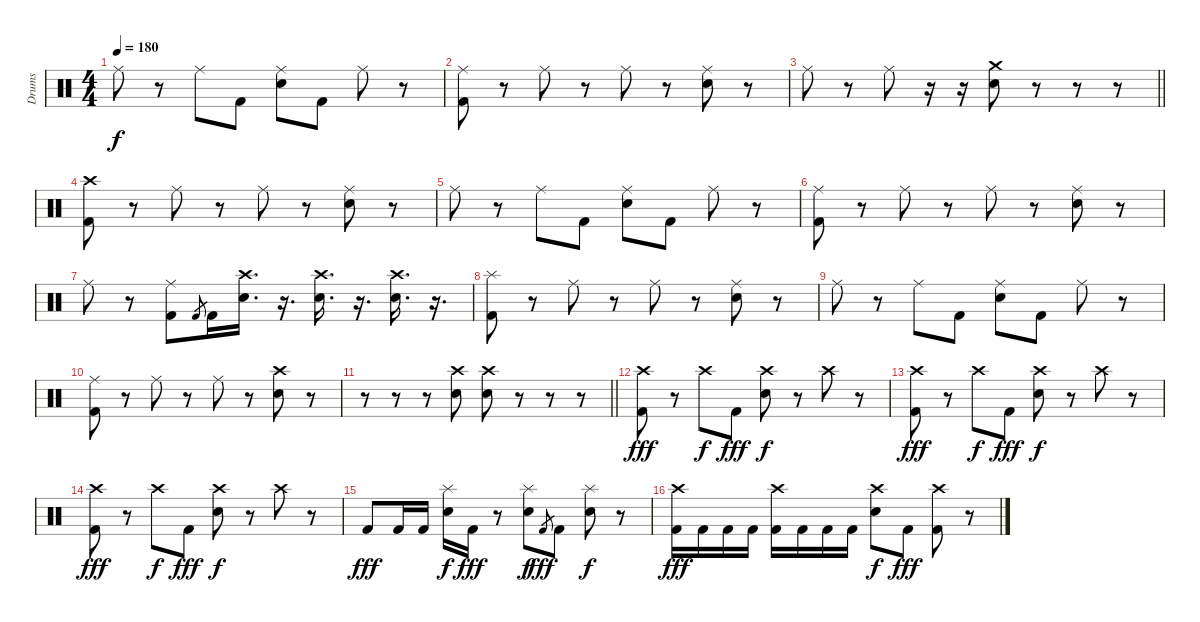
\track ("Drums" "Drums") {instrument percussion}
\staff {score}
\articulation defaults
\ts (4 4)
\tempo 180
\clef neutral
\ks c "Ride (middle)".8{dy f}
r.8 "Ride (middle)".8 "Kick (hit) 2".8 ("Ride (middle)" "Electric Snare (hit)").8 "Kick (hit) 2".8 "Ride (middle)".8 r.8 |
("Ride (middle)" "Kick (hit) 2").8 r.8 "Ride (middle)".8 r.8 "Ride (middle)".8 r.8 ("Ride (middle)" "Electric Snare (hit)").8 r.8 |
\barLineRight lightlight "Ride (middle)".8
r.8 "Ride (middle)".8 r.16 r.16 ("Crash medium (hit)" "Electric Snare (hit)").8 r.8 r.8 r.8 |
\section ("" "")
("Crash high (hit)" "Kick (hit) 2").8{volume 12} r.8 "Ride (middle)".8 r.8 "Ride (middle)".8 r.8 ("Ride (middle)" "Electric Snare (hit)").8 r.8 |
"Ride (middle)".8 r.8 "Ride (middle)".8 "Kick (hit) 2".8 ("Ride (middle)" "Electric Snare (hit)").8 "Kick (hit) 2".8 "Ride (middle)".8 r.8 |
("Ride (middle)" "Kick (hit) 2").8 r.8 "Ride (middle)".8 r.8 "Ride (middle)".8 r.8 ("Ride (middle)" "Electric Snare (hit)").8 r.8 |
"Ride (middle)".8 r.8 ("Ride (middle)" "Kick (hit) 2").8 "Kick (hit) 2".8{gr} "Kick (hit) 2".16 ("Crash high (hit)" "Electric Snare (hit)").16{d} r.16{d} ("Crash high (hit)" "Electric Snare (hit)").16{d} r.16{d} ("Crash high (hit)" "Electric Snare (hit)").16{d} r.16{d} |
("Splash (hit)" "Kick (hit) 2").8 r.8 "Ride (middle)".8 r.8 "Ride (middle)".8 r.8 ("Ride (middle)" "Electric Snare (hit)").8 r.8 |
"Ride (middle)".8 r.8 "Ride (middle)".8 "Kick (hit) 2".8 ("Ride (middle)" "Electric Snare (hit)").8 "Kick (hit) 2".8 "Ride (middle)".8 r.8 |
("Ride (middle)" "Kick (hit) 2").8 r.8 "Ride (middle)".8 r.8 "Ride (middle)".8 r.8 ("Crash high (hit)" "Electric Snare (hit)").8 r.8 |
\barLineRight lightlight
r.8 r.8 r.8 ("Crash high (hit)" "Electric Snare (hit)").8 ("Crash high (hit)" "Electric Snare (hit)").8 r.8 r.8 r.8 |
\section ("" "")
("Crash high (hit)" "Kick (hit) 2").8{dy fff} r.8 "Crash high (hit)".8{dy f} "Kick (hit) 2".8{dy fff} ("Crash high (hit)" "Electric Snare (hit)").8{dy f} r.8 "Crash high (hit)".8 r.8 |
("Crash high (hit)" "Kick (hit) 2").8{dy fff} r.8 "Crash high (hit)".8{dy f} "Kick (hit) 2".8{dy fff} ("Crash high (hit)" "Electric Snare (hit)").8{dy f} r.8 "Crash high (hit)".8 r.8 |
("Crash high (hit)" "Kick (hit) 2").8{dy fff} r.8 "Crash high (hit)".8{dy f} "Kick (hit) 2".8{dy fff} ("Crash high (hit)" "Electric Snare (hit)").8{dy f} r.8 "Crash high (hit)".8 r.8 |
"Kick (hit) 2".8{dy fff} "Kick (hit) 2".16 "Kick (hit) 2".16 ("Splash (hit)" "Electric Snare (hit)").16{dy f} "Kick (hit) 2".16{dy fff} r.8 ("Splash (hit)" "Electric Snare (hit)").8{dy f} "Kick (hit) 2".8{gr dy fff} "Kick (hit) 2".8 ("Splash (hit)" "Electric Snare (hit)").8{dy f} r.8 |
("Crash high (hit)" "Kick (hit) 2").16{dy fff} "Kick (hit) 2".16 "Kick (hit) 2".16 "Kick (hit) 2".16 ("Crash high (hit)" "Kick (hit) 2").16 "Kick (hit) 2".16 "Kick (hit) 2".16 "Kick (hit) 2".16 ("Crash high (hit)" "Electric Snare (hit)").8{dy f} "Kick (hit) 2".8{dy fff} ("Crash high (hit)" "Kick (hit) 2").8 r.8
